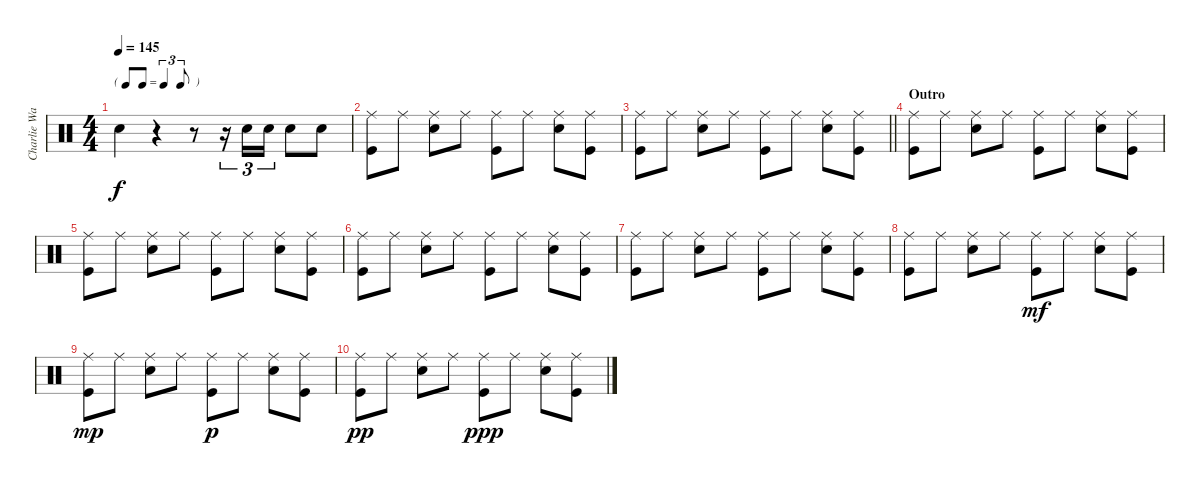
\track ("Charlie Watts" "Charlie Wa") {instrument percussion}
\staff {score}
\articulation defaults
\ts (4 4)
\tf triplet8th
\tempo 145
\clef neutral
\ks c "Snare (hit) 2".4{dy f}
r.4 r.8 r.16{tu (3 2)} "Snare (hit) 2".16{tu (3 2)} "Snare (hit) 2".16{tu (3 2)} "Snare (hit) 2".8 "Snare (hit) 2".8 |
("Ride (middle)" "Kick (hit)").8 "Ride (middle)".8 ("Ride (middle)" "Snare (hit) 2").8 "Ride (middle)".8 ("Ride (middle)" "Kick (hit)").8 "Ride (middle)".8 ("Ride (middle)" "Snare (hit) 2").8 ("Ride (middle)" "Kick (hit)").8 |
\barLineRight lightlight
("Ride (middle)" "Kick (hit)").8 "Ride (middle)".8 ("Ride (middle)" "Snare (hit) 2").8 "Ride (middle)".8 ("Ride (middle)" "Kick (hit)").8 "Ride (middle)".8 ("Ride (middle)" "Snare (hit) 2").8 ("Ride (middle)" "Kick (hit)").8 |
\section ("" "Outro")
("Ride (middle)" "Kick (hit)").8 "Ride (middle)".8 ("Ride (middle)" "Snare (hit) 2").8 "Ride (middle)".8 ("Ride (middle)" "Kick (hit)").8 "Ride (middle)".8 ("Ride (middle)" "Snare (hit) 2").8 ("Ride (middle)" "Kick (hit)").8 |
("Ride (middle)" "Kick (hit)").8 "Ride (middle)".8 ("Ride (middle)" "Snare (hit) 2").8 "Ride (middle)".8 ("Ride (middle)" "Kick (hit)").8 "Ride (middle)".8 ("Ride (middle)" "Snare (hit) 2").8 ("Ride (middle)" "Kick (hit)").8 |
("Ride (middle)" "Kick (hit)").8 "Ride (middle)".8 ("Ride (middle)" "Snare (hit) 2").8 "Ride (middle)".8 ("Ride (middle)" "Kick (hit)").8 "Ride (middle)".8 ("Ride (middle)" "Snare (hit) 2").8 ("Ride (middle)" "Kick (hit)").8 |
("Ride (middle)" "Kick (hit)").8 "Ride (middle)".8 ("Ride (middle)" "Snare (hit) 2").8 "Ride (middle)".8 ("Ride (middle)" "Kick (hit)").8 "Ride (middle)".8 ("Ride (middle)" "Snare (hit) 2").8 ("Ride (middle)" "Kick (hit)").8 |
("Ride (middle)" "Kick (hit)").8 "Ride (middle)".8 ("Ride (middle)" "Snare (hit) 2").8 "Ride (middle)".8 ("Ride (middle)" "Kick (hit)").8{dy mf} "Ride (middle)".8 ("Ride (middle)" "Snare (hit) 2").8 ("Ride (middle)" "Kick (hit)").8 |
("Ride (middle)" "Kick (hit)").8{dy mp} "Ride (middle)".8 ("Ride (middle)" "Snare (hit) 2").8 "Ride (middle)".8 ("Ride (middle)" "Kick (hit)").8{dy p} "Ride (middle)".8 ("Ride (middle)" "Snare (hit) 2").8 ("Ride (middle)" "Kick (hit)").8 |
("Ride (middle)" "Kick (hit)").8{dy pp} "Ride (middle)".8 ("Ride (middle)" "Snare (hit) 2").8 "Ride (middle)".8 ("Ride (middle)" "Kick (hit)").8{dy ppp} "Ride (middle)".8 ("Ride (middle)" "Snare (hit) 2").8 ("Ride (middle)" "Kick (hit)").8
